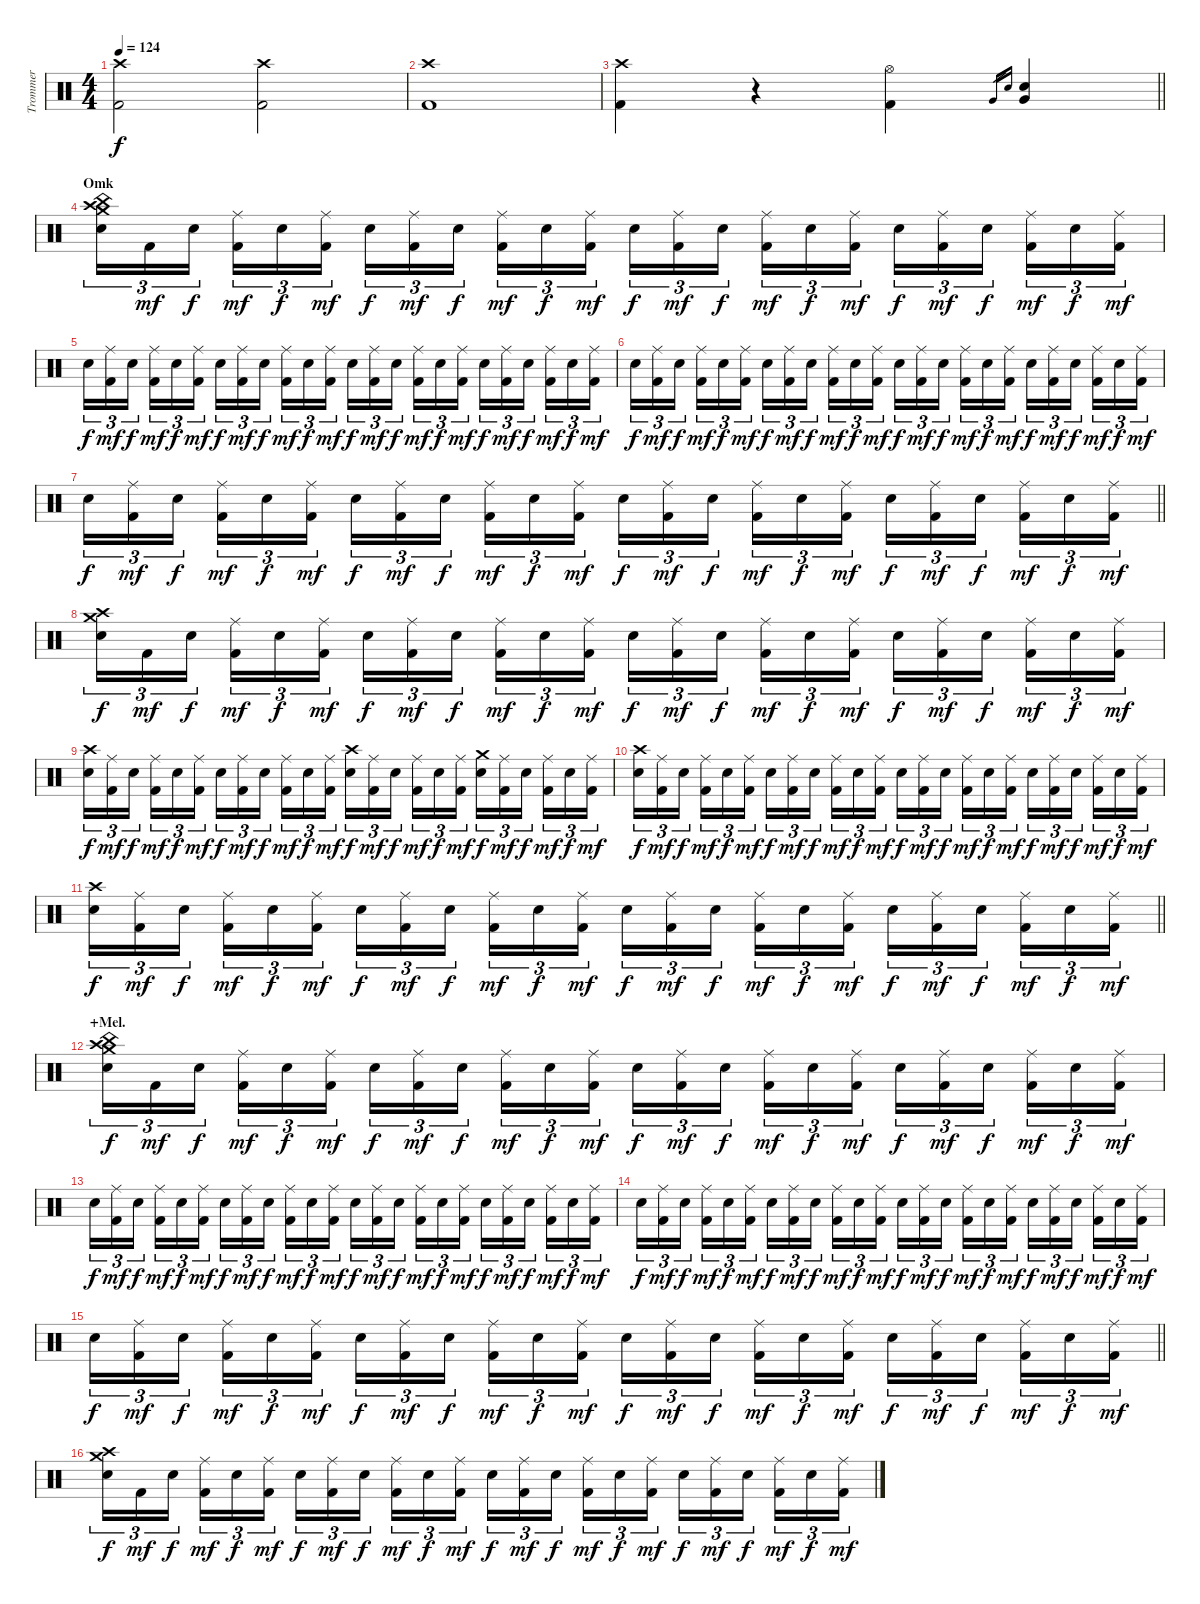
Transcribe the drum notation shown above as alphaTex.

\track ("Trommer" "Trommer") {instrument percussion}
\staff {score}
\articulation defaults
\ts (4 4)
\tempo 124
\clef neutral
\ks c
("Crash high (hit)" "Kick (hit) 2").2{dy f} ("Crash high (hit)" "Kick (hit) 2").2 |
("Crash high (hit)" "Kick (hit) 2").1 |
\barLineRight lightlight
("Crash high (hit)" "Kick (hit) 2").4 r.4 ("Hi-Hat (open)" "Kick (hit) 2").4 "Very Low Tom (hit)".16{gr} "Snare (hit) 2".16{gr} ("Very Low Tom (hit)" "Snare (hit) 2").4 |
\section ("" "Omk")
("Crash medium (hit)" "Crash high (hit)" "China (hit)" "Snare (hit) 2").16{tu (3 2)} "Kick (hit) 2".16{tu (3 2) dy mf} "Snare (hit) 2".16{tu (3 2) dy f beam splitsecondary} ("Ride (middle)" "Kick (hit) 2").16{tu (3 2) dy mf} "Snare (hit) 2".16{tu (3 2) dy f} ("Ride (middle)" "Kick (hit) 2").16{tu (3 2) dy mf} "Snare (hit) 2".16{tu (3 2) dy f} ("Ride (middle)" "Kick (hit) 2").16{tu (3 2) dy mf} "Snare (hit) 2".16{tu (3 2) dy f beam splitsecondary} ("Ride (middle)" "Kick (hit) 2").16{tu (3 2) dy mf} "Snare (hit) 2".16{tu (3 2) dy f} ("Ride (middle)" "Kick (hit) 2").16{tu (3 2) dy mf} "Snare (hit) 2".16{tu (3 2) dy f} ("Ride (middle)" "Kick (hit) 2").16{tu (3 2) dy mf} "Snare (hit) 2".16{tu (3 2) dy f beam splitsecondary} ("Ride (middle)" "Kick (hit) 2").16{tu (3 2) dy mf} "Snare (hit) 2".16{tu (3 2) dy f} ("Ride (middle)" "Kick (hit) 2").16{tu (3 2) dy mf} "Snare (hit) 2".16{tu (3 2) dy f} ("Ride (middle)" "Kick (hit) 2").16{tu (3 2) dy mf} "Snare (hit) 2".16{tu (3 2) dy f beam splitsecondary} ("Ride (middle)" "Kick (hit) 2").16{tu (3 2) dy mf} "Snare (hit) 2".16{tu (3 2) dy f} ("Ride (middle)" "Kick (hit) 2").16{tu (3 2) dy mf} |
"Snare (hit) 2".16{tu (3 2) dy f} ("Ride (middle)" "Kick (hit) 2").16{tu (3 2) dy mf} "Snare (hit) 2".16{tu (3 2) dy f beam splitsecondary} ("Ride (middle)" "Kick (hit) 2").16{tu (3 2) dy mf} "Snare (hit) 2".16{tu (3 2) dy f} ("Ride (middle)" "Kick (hit) 2").16{tu (3 2) dy mf} "Snare (hit) 2".16{tu (3 2) dy f} ("Ride (middle)" "Kick (hit) 2").16{tu (3 2) dy mf} "Snare (hit) 2".16{tu (3 2) dy f beam splitsecondary} ("Ride (middle)" "Kick (hit) 2").16{tu (3 2) dy mf} "Snare (hit) 2".16{tu (3 2) dy f} ("Ride (middle)" "Kick (hit) 2").16{tu (3 2) dy mf} "Snare (hit) 2".16{tu (3 2) dy f} ("Ride (middle)" "Kick (hit) 2").16{tu (3 2) dy mf} "Snare (hit) 2".16{tu (3 2) dy f beam splitsecondary} ("Ride (middle)" "Kick (hit) 2").16{tu (3 2) dy mf} "Snare (hit) 2".16{tu (3 2) dy f} ("Ride (middle)" "Kick (hit) 2").16{tu (3 2) dy mf} "Snare (hit) 2".16{tu (3 2) dy f} ("Ride (middle)" "Kick (hit) 2").16{tu (3 2) dy mf} "Snare (hit) 2".16{tu (3 2) dy f beam splitsecondary} ("Ride (middle)" "Kick (hit) 2").16{tu (3 2) dy mf} "Snare (hit) 2".16{tu (3 2) dy f} ("Ride (middle)" "Kick (hit) 2").16{tu (3 2) dy mf} |
"Snare (hit) 2".16{tu (3 2) dy f} ("Ride (middle)" "Kick (hit) 2").16{tu (3 2) dy mf} "Snare (hit) 2".16{tu (3 2) dy f beam splitsecondary} ("Ride (middle)" "Kick (hit) 2").16{tu (3 2) dy mf} "Snare (hit) 2".16{tu (3 2) dy f} ("Ride (middle)" "Kick (hit) 2").16{tu (3 2) dy mf} "Snare (hit) 2".16{tu (3 2) dy f} ("Ride (middle)" "Kick (hit) 2").16{tu (3 2) dy mf} "Snare (hit) 2".16{tu (3 2) dy f beam splitsecondary} ("Ride (middle)" "Kick (hit) 2").16{tu (3 2) dy mf} "Snare (hit) 2".16{tu (3 2) dy f} ("Ride (middle)" "Kick (hit) 2").16{tu (3 2) dy mf} "Snare (hit) 2".16{tu (3 2) dy f} ("Ride (middle)" "Kick (hit) 2").16{tu (3 2) dy mf} "Snare (hit) 2".16{tu (3 2) dy f beam splitsecondary} ("Ride (middle)" "Kick (hit) 2").16{tu (3 2) dy mf} "Snare (hit) 2".16{tu (3 2) dy f} ("Ride (middle)" "Kick (hit) 2").16{tu (3 2) dy mf} "Snare (hit) 2".16{tu (3 2) dy f} ("Ride (middle)" "Kick (hit) 2").16{tu (3 2) dy mf} "Snare (hit) 2".16{tu (3 2) dy f beam splitsecondary} ("Ride (middle)" "Kick (hit) 2").16{tu (3 2) dy mf} "Snare (hit) 2".16{tu (3 2) dy f} ("Ride (middle)" "Kick (hit) 2").16{tu (3 2) dy mf} |
\barLineRight lightlight "Snare (hit) 2".16{tu (3 2) dy f}
("Ride (middle)" "Kick (hit) 2").16{tu (3 2) dy mf} "Snare (hit) 2".16{tu (3 2) dy f beam splitsecondary} ("Ride (middle)" "Kick (hit) 2").16{tu (3 2) dy mf} "Snare (hit) 2".16{tu (3 2) dy f} ("Ride (middle)" "Kick (hit) 2").16{tu (3 2) dy mf} "Snare (hit) 2".16{tu (3 2) dy f} ("Ride (middle)" "Kick (hit) 2").16{tu (3 2) dy mf} "Snare (hit) 2".16{tu (3 2) dy f beam splitsecondary} ("Ride (middle)" "Kick (hit) 2").16{tu (3 2) dy mf} "Snare (hit) 2".16{tu (3 2) dy f} ("Ride (middle)" "Kick (hit) 2").16{tu (3 2) dy mf} "Snare (hit) 2".16{tu (3 2) dy f} ("Ride (middle)" "Kick (hit) 2").16{tu (3 2) dy mf} "Snare (hit) 2".16{tu (3 2) dy f beam splitsecondary} ("Ride (middle)" "Kick (hit) 2").16{tu (3 2) dy mf} "Snare (hit) 2".16{tu (3 2) dy f} ("Ride (middle)" "Kick (hit) 2").16{tu (3 2) dy mf} "Snare (hit) 2".16{tu (3 2) dy f} ("Ride (middle)" "Kick (hit) 2").16{tu (3 2) dy mf} "Snare (hit) 2".16{tu (3 2) dy f beam splitsecondary} ("Ride (middle)" "Kick (hit) 2").16{tu (3 2) dy mf} "Snare (hit) 2".16{tu (3 2) dy f} ("Ride (middle)" "Kick (hit) 2").16{tu (3 2) dy mf} |
("Crash medium (hit)" "Crash high (hit)" "Snare (hit) 2").16{tu (3 2) dy f} "Kick (hit) 2".16{tu (3 2) dy mf} "Snare (hit) 2".16{tu (3 2) dy f beam splitsecondary} ("Ride (middle)" "Kick (hit) 2").16{tu (3 2) dy mf} "Snare (hit) 2".16{tu (3 2) dy f} ("Ride (middle)" "Kick (hit) 2").16{tu (3 2) dy mf} "Snare (hit) 2".16{tu (3 2) dy f} ("Ride (middle)" "Kick (hit) 2").16{tu (3 2) dy mf} "Snare (hit) 2".16{tu (3 2) dy f beam splitsecondary} ("Ride (middle)" "Kick (hit) 2").16{tu (3 2) dy mf} "Snare (hit) 2".16{tu (3 2) dy f} ("Ride (middle)" "Kick (hit) 2").16{tu (3 2) dy mf} "Snare (hit) 2".16{tu (3 2) dy f} ("Ride (middle)" "Kick (hit) 2").16{tu (3 2) dy mf} "Snare (hit) 2".16{tu (3 2) dy f beam splitsecondary} ("Ride (middle)" "Kick (hit) 2").16{tu (3 2) dy mf} "Snare (hit) 2".16{tu (3 2) dy f} ("Ride (middle)" "Kick (hit) 2").16{tu (3 2) dy mf} "Snare (hit) 2".16{tu (3 2) dy f} ("Ride (middle)" "Kick (hit) 2").16{tu (3 2) dy mf} "Snare (hit) 2".16{tu (3 2) dy f beam splitsecondary} ("Ride (middle)" "Kick (hit) 2").16{tu (3 2) dy mf} "Snare (hit) 2".16{tu (3 2) dy f} ("Ride (middle)" "Kick (hit) 2").16{tu (3 2) dy mf} |
("Crash high (hit)" "Snare (hit) 2").16{tu (3 2) dy f} ("Ride (middle)" "Kick (hit) 2").16{tu (3 2) dy mf} "Snare (hit) 2".16{tu (3 2) dy f beam splitsecondary} ("Ride (middle)" "Kick (hit) 2").16{tu (3 2) dy mf} "Snare (hit) 2".16{tu (3 2) dy f} ("Ride (middle)" "Kick (hit) 2").16{tu (3 2) dy mf} "Snare (hit) 2".16{tu (3 2) dy f} ("Ride (middle)" "Kick (hit) 2").16{tu (3 2) dy mf} "Snare (hit) 2".16{tu (3 2) dy f beam splitsecondary} ("Ride (middle)" "Kick (hit) 2").16{tu (3 2) dy mf} "Snare (hit) 2".16{tu (3 2) dy f} ("Ride (middle)" "Kick (hit) 2").16{tu (3 2) dy mf} ("Crash high (hit)" "Snare (hit) 2").16{tu (3 2) dy f} ("Ride (middle)" "Kick (hit) 2").16{tu (3 2) dy mf} "Snare (hit) 2".16{tu (3 2) dy f beam splitsecondary} ("Ride (middle)" "Kick (hit) 2").16{tu (3 2) dy mf} "Snare (hit) 2".16{tu (3 2) dy f} ("Ride (middle)" "Kick (hit) 2").16{tu (3 2) dy mf} ("Crash medium (hit)" "Snare (hit) 2").16{tu (3 2) dy f} ("Ride (middle)" "Kick (hit) 2").16{tu (3 2) dy mf} "Snare (hit) 2".16{tu (3 2) dy f beam splitsecondary} ("Ride (middle)" "Kick (hit) 2").16{tu (3 2) dy mf} "Snare (hit) 2".16{tu (3 2) dy f} ("Ride (middle)" "Kick (hit) 2").16{tu (3 2) dy mf} |
("Crash high (hit)" "Snare (hit) 2").16{tu (3 2) dy f} ("Ride (middle)" "Kick (hit) 2").16{tu (3 2) dy mf} "Snare (hit) 2".16{tu (3 2) dy f beam splitsecondary} ("Ride (middle)" "Kick (hit) 2").16{tu (3 2) dy mf} "Snare (hit) 2".16{tu (3 2) dy f} ("Ride (middle)" "Kick (hit) 2").16{tu (3 2) dy mf} "Snare (hit) 2".16{tu (3 2) dy f} ("Ride (middle)" "Kick (hit) 2").16{tu (3 2) dy mf} "Snare (hit) 2".16{tu (3 2) dy f beam splitsecondary} ("Ride (middle)" "Kick (hit) 2").16{tu (3 2) dy mf} "Snare (hit) 2".16{tu (3 2) dy f} ("Ride (middle)" "Kick (hit) 2").16{tu (3 2) dy mf} "Snare (hit) 2".16{tu (3 2) dy f} ("Ride (middle)" "Kick (hit) 2").16{tu (3 2) dy mf} "Snare (hit) 2".16{tu (3 2) dy f beam splitsecondary} ("Ride (middle)" "Kick (hit) 2").16{tu (3 2) dy mf} "Snare (hit) 2".16{tu (3 2) dy f} ("Ride (middle)" "Kick (hit) 2").16{tu (3 2) dy mf} "Snare (hit) 2".16{tu (3 2) dy f} ("Ride (middle)" "Kick (hit) 2").16{tu (3 2) dy mf} "Snare (hit) 2".16{tu (3 2) dy f beam splitsecondary} ("Ride (middle)" "Kick (hit) 2").16{tu (3 2) dy mf} "Snare (hit) 2".16{tu (3 2) dy f} ("Ride (middle)" "Kick (hit) 2").16{tu (3 2) dy mf} |
\barLineRight lightlight
("Crash high (hit)" "Snare (hit) 2").16{tu (3 2) dy f} ("Ride (middle)" "Kick (hit) 2").16{tu (3 2) dy mf} "Snare (hit) 2".16{tu (3 2) dy f beam splitsecondary} ("Ride (middle)" "Kick (hit) 2").16{tu (3 2) dy mf} "Snare (hit) 2".16{tu (3 2) dy f} ("Ride (middle)" "Kick (hit) 2").16{tu (3 2) dy mf} "Snare (hit) 2".16{tu (3 2) dy f} ("Ride (middle)" "Kick (hit) 2").16{tu (3 2) dy mf} "Snare (hit) 2".16{tu (3 2) dy f beam splitsecondary} ("Ride (middle)" "Kick (hit) 2").16{tu (3 2) dy mf} "Snare (hit) 2".16{tu (3 2) dy f} ("Ride (middle)" "Kick (hit) 2").16{tu (3 2) dy mf} "Snare (hit) 2".16{tu (3 2) dy f} ("Ride (middle)" "Kick (hit) 2").16{tu (3 2) dy mf} "Snare (hit) 2".16{tu (3 2) dy f beam splitsecondary} ("Ride (middle)" "Kick (hit) 2").16{tu (3 2) dy mf} "Snare (hit) 2".16{tu (3 2) dy f} ("Ride (middle)" "Kick (hit) 2").16{tu (3 2) dy mf} "Snare (hit) 2".16{tu (3 2) dy f} ("Ride (middle)" "Kick (hit) 2").16{tu (3 2) dy mf} "Snare (hit) 2".16{tu (3 2) dy f beam splitsecondary} ("Ride (middle)" "Kick (hit) 2").16{tu (3 2) dy mf} "Snare (hit) 2".16{tu (3 2) dy f} ("Ride (middle)" "Kick (hit) 2").16{tu (3 2) dy mf} |
\section ("" "+Mel.")
("Crash medium (hit)" "Crash high (hit)" "China (hit)" "Snare (hit) 2").16{tu (3 2) dy f} "Kick (hit) 2".16{tu (3 2) dy mf} "Snare (hit) 2".16{tu (3 2) dy f beam splitsecondary} ("Ride (middle)" "Kick (hit) 2").16{tu (3 2) dy mf} "Snare (hit) 2".16{tu (3 2) dy f} ("Ride (middle)" "Kick (hit) 2").16{tu (3 2) dy mf} "Snare (hit) 2".16{tu (3 2) dy f} ("Ride (middle)" "Kick (hit) 2").16{tu (3 2) dy mf} "Snare (hit) 2".16{tu (3 2) dy f beam splitsecondary} ("Ride (middle)" "Kick (hit) 2").16{tu (3 2) dy mf} "Snare (hit) 2".16{tu (3 2) dy f} ("Ride (middle)" "Kick (hit) 2").16{tu (3 2) dy mf} "Snare (hit) 2".16{tu (3 2) dy f} ("Ride (middle)" "Kick (hit) 2").16{tu (3 2) dy mf} "Snare (hit) 2".16{tu (3 2) dy f beam splitsecondary} ("Ride (middle)" "Kick (hit) 2").16{tu (3 2) dy mf} "Snare (hit) 2".16{tu (3 2) dy f} ("Ride (middle)" "Kick (hit) 2").16{tu (3 2) dy mf} "Snare (hit) 2".16{tu (3 2) dy f} ("Ride (middle)" "Kick (hit) 2").16{tu (3 2) dy mf} "Snare (hit) 2".16{tu (3 2) dy f beam splitsecondary} ("Ride (middle)" "Kick (hit) 2").16{tu (3 2) dy mf} "Snare (hit) 2".16{tu (3 2) dy f} ("Ride (middle)" "Kick (hit) 2").16{tu (3 2) dy mf} |
"Snare (hit) 2".16{tu (3 2) dy f} ("Ride (middle)" "Kick (hit) 2").16{tu (3 2) dy mf} "Snare (hit) 2".16{tu (3 2) dy f beam splitsecondary} ("Ride (middle)" "Kick (hit) 2").16{tu (3 2) dy mf} "Snare (hit) 2".16{tu (3 2) dy f} ("Ride (middle)" "Kick (hit) 2").16{tu (3 2) dy mf} "Snare (hit) 2".16{tu (3 2) dy f} ("Ride (middle)" "Kick (hit) 2").16{tu (3 2) dy mf} "Snare (hit) 2".16{tu (3 2) dy f beam splitsecondary} ("Ride (middle)" "Kick (hit) 2").16{tu (3 2) dy mf} "Snare (hit) 2".16{tu (3 2) dy f} ("Ride (middle)" "Kick (hit) 2").16{tu (3 2) dy mf} "Snare (hit) 2".16{tu (3 2) dy f} ("Ride (middle)" "Kick (hit) 2").16{tu (3 2) dy mf} "Snare (hit) 2".16{tu (3 2) dy f beam splitsecondary} ("Ride (middle)" "Kick (hit) 2").16{tu (3 2) dy mf} "Snare (hit) 2".16{tu (3 2) dy f} ("Ride (middle)" "Kick (hit) 2").16{tu (3 2) dy mf} "Snare (hit) 2".16{tu (3 2) dy f} ("Ride (middle)" "Kick (hit) 2").16{tu (3 2) dy mf} "Snare (hit) 2".16{tu (3 2) dy f beam splitsecondary} ("Ride (middle)" "Kick (hit) 2").16{tu (3 2) dy mf} "Snare (hit) 2".16{tu (3 2) dy f} ("Ride (middle)" "Kick (hit) 2").16{tu (3 2) dy mf} |
"Snare (hit) 2".16{tu (3 2) dy f} ("Ride (middle)" "Kick (hit) 2").16{tu (3 2) dy mf} "Snare (hit) 2".16{tu (3 2) dy f beam splitsecondary} ("Ride (middle)" "Kick (hit) 2").16{tu (3 2) dy mf} "Snare (hit) 2".16{tu (3 2) dy f} ("Ride (middle)" "Kick (hit) 2").16{tu (3 2) dy mf} "Snare (hit) 2".16{tu (3 2) dy f} ("Ride (middle)" "Kick (hit) 2").16{tu (3 2) dy mf} "Snare (hit) 2".16{tu (3 2) dy f beam splitsecondary} ("Ride (middle)" "Kick (hit) 2").16{tu (3 2) dy mf} "Snare (hit) 2".16{tu (3 2) dy f} ("Ride (middle)" "Kick (hit) 2").16{tu (3 2) dy mf} "Snare (hit) 2".16{tu (3 2) dy f} ("Ride (middle)" "Kick (hit) 2").16{tu (3 2) dy mf} "Snare (hit) 2".16{tu (3 2) dy f beam splitsecondary} ("Ride (middle)" "Kick (hit) 2").16{tu (3 2) dy mf} "Snare (hit) 2".16{tu (3 2) dy f} ("Ride (middle)" "Kick (hit) 2").16{tu (3 2) dy mf} "Snare (hit) 2".16{tu (3 2) dy f} ("Ride (middle)" "Kick (hit) 2").16{tu (3 2) dy mf} "Snare (hit) 2".16{tu (3 2) dy f beam splitsecondary} ("Ride (middle)" "Kick (hit) 2").16{tu (3 2) dy mf} "Snare (hit) 2".16{tu (3 2) dy f} ("Ride (middle)" "Kick (hit) 2").16{tu (3 2) dy mf} |
\barLineRight lightlight "Snare (hit) 2".16{tu (3 2) dy f}
("Ride (middle)" "Kick (hit) 2").16{tu (3 2) dy mf} "Snare (hit) 2".16{tu (3 2) dy f beam splitsecondary} ("Ride (middle)" "Kick (hit) 2").16{tu (3 2) dy mf} "Snare (hit) 2".16{tu (3 2) dy f} ("Ride (middle)" "Kick (hit) 2").16{tu (3 2) dy mf} "Snare (hit) 2".16{tu (3 2) dy f} ("Ride (middle)" "Kick (hit) 2").16{tu (3 2) dy mf} "Snare (hit) 2".16{tu (3 2) dy f beam splitsecondary} ("Ride (middle)" "Kick (hit) 2").16{tu (3 2) dy mf} "Snare (hit) 2".16{tu (3 2) dy f} ("Ride (middle)" "Kick (hit) 2").16{tu (3 2) dy mf} "Snare (hit) 2".16{tu (3 2) dy f} ("Ride (middle)" "Kick (hit) 2").16{tu (3 2) dy mf} "Snare (hit) 2".16{tu (3 2) dy f beam splitsecondary} ("Ride (middle)" "Kick (hit) 2").16{tu (3 2) dy mf} "Snare (hit) 2".16{tu (3 2) dy f} ("Ride (middle)" "Kick (hit) 2").16{tu (3 2) dy mf} "Snare (hit) 2".16{tu (3 2) dy f} ("Ride (middle)" "Kick (hit) 2").16{tu (3 2) dy mf} "Snare (hit) 2".16{tu (3 2) dy f beam splitsecondary} ("Ride (middle)" "Kick (hit) 2").16{tu (3 2) dy mf} "Snare (hit) 2".16{tu (3 2) dy f} ("Ride (middle)" "Kick (hit) 2").16{tu (3 2) dy mf} |
("Crash medium (hit)" "Crash high (hit)" "Snare (hit) 2").16{tu (3 2) dy f} "Kick (hit) 2".16{tu (3 2) dy mf} "Snare (hit) 2".16{tu (3 2) dy f beam splitsecondary} ("Ride (middle)" "Kick (hit) 2").16{tu (3 2) dy mf} "Snare (hit) 2".16{tu (3 2) dy f} ("Ride (middle)" "Kick (hit) 2").16{tu (3 2) dy mf} "Snare (hit) 2".16{tu (3 2) dy f} ("Ride (middle)" "Kick (hit) 2").16{tu (3 2) dy mf} "Snare (hit) 2".16{tu (3 2) dy f beam splitsecondary} ("Ride (middle)" "Kick (hit) 2").16{tu (3 2) dy mf} "Snare (hit) 2".16{tu (3 2) dy f} ("Ride (middle)" "Kick (hit) 2").16{tu (3 2) dy mf} "Snare (hit) 2".16{tu (3 2) dy f} ("Ride (middle)" "Kick (hit) 2").16{tu (3 2) dy mf} "Snare (hit) 2".16{tu (3 2) dy f beam splitsecondary} ("Ride (middle)" "Kick (hit) 2").16{tu (3 2) dy mf} "Snare (hit) 2".16{tu (3 2) dy f} ("Ride (middle)" "Kick (hit) 2").16{tu (3 2) dy mf} "Snare (hit) 2".16{tu (3 2) dy f} ("Ride (middle)" "Kick (hit) 2").16{tu (3 2) dy mf} "Snare (hit) 2".16{tu (3 2) dy f beam splitsecondary} ("Ride (middle)" "Kick (hit) 2").16{tu (3 2) dy mf} "Snare (hit) 2".16{tu (3 2) dy f} ("Ride (middle)" "Kick (hit) 2").16{tu (3 2) dy mf}
